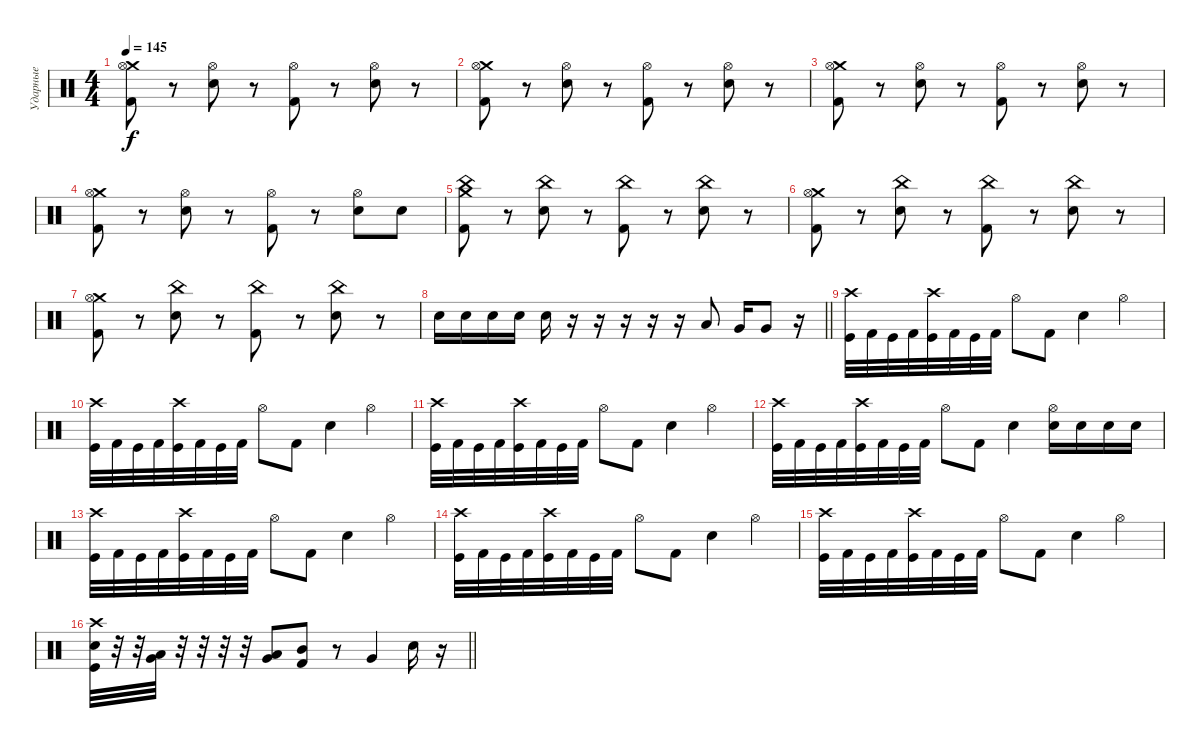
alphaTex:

\track ("Ударные" "Ударные") {instrument percussion}
\staff {score}
\articulation defaults
\ts (4 4)
\tempo 145
\clef neutral
\ks c
("Crash medium (hit)" "Hi-Hat (open)" "Kick (hit) 2").8{dy f} r.8 ("Hi-Hat (open)" "Electric Snare (hit)").8 r.8 ("Hi-Hat (open)" "Kick (hit) 2").8 r.8 ("Hi-Hat (open)" "Electric Snare (hit)").8 r.8 |
("Crash medium (hit)" "Hi-Hat (open)" "Kick (hit) 2").8 r.8 ("Hi-Hat (open)" "Electric Snare (hit)").8 r.8 ("Hi-Hat (open)" "Kick (hit) 2").8 r.8 ("Hi-Hat (open)" "Electric Snare (hit)").8 r.8 |
("Crash medium (hit)" "Hi-Hat (open)" "Kick (hit) 2").8 r.8 ("Hi-Hat (open)" "Electric Snare (hit)").8 r.8 ("Hi-Hat (open)" "Kick (hit) 2").8 r.8 ("Hi-Hat (open)" "Electric Snare (hit)").8 r.8 |
("Crash medium (hit)" "Hi-Hat (open)" "Kick (hit) 2").8 r.8 ("Hi-Hat (open)" "Electric Snare (hit)").8 r.8 ("Hi-Hat (open)" "Kick (hit) 2").8 r.8 ("Hi-Hat (open)" "Electric Snare (hit)").8 "Electric Snare (hit)".8 |
("Crash medium (hit)" "China (hit)" "Kick (hit) 2").8 r.8 ("China (hit)" "Electric Snare (hit)").8 r.8 ("China (hit)" "Kick (hit) 2").8 r.8 ("China (hit)" "Electric Snare (hit)").8 r.8 |
("Crash medium (hit)" "Hi-Hat (open)" "Kick (hit) 2").8 r.8 ("China (hit)" "Electric Snare (hit)").8 r.8 ("China (hit)" "Kick (hit) 2").8 r.8 ("China (hit)" "Electric Snare (hit)").8 r.8 |
("Crash medium (hit)" "Hi-Hat (open)" "Kick (hit) 2").8 r.8 ("China (hit)" "Electric Snare (hit)").8 r.8 ("China (hit)" "Kick (hit) 2").8 r.8 ("China (hit)" "Electric Snare (hit)").8 r.8 |
\barLineRight lightlight "Electric Snare (hit)".16 "Electric Snare (hit)".16 "Electric Snare (hit)".16 "Electric Snare (hit)".16 "Electric Snare (hit)".16
r.16 r.16 r.16 r.16 r.16 "Low Tom (hit)".8 "Very Low Tom (hit)".16 "Very Low Tom (hit)".8 r.16 |
\section ("" "")
("Crash high (hit)" "Kick (hit)").32 "Kick (hit) 2".32 "Kick (hit)".32 "Kick (hit) 2".32 ("Crash high (hit)" "Kick (hit)").32 "Kick (hit) 2".32 "Kick (hit)".32 "Kick (hit) 2".32 "Hi-Hat (open)".8 "Kick (hit) 2".8 "Snare (hit) 2".4 "Hi-Hat (open)".4 |
("Crash high (hit)" "Kick (hit)").32 "Kick (hit) 2".32 "Kick (hit)".32 "Kick (hit) 2".32 ("Crash high (hit)" "Kick (hit)").32 "Kick (hit) 2".32 "Kick (hit)".32 "Kick (hit) 2".32 "Hi-Hat (open)".8 "Kick (hit) 2".8 "Snare (hit) 2".4 "Hi-Hat (open)".4 |
("Crash high (hit)" "Kick (hit)").32 "Kick (hit) 2".32 "Kick (hit)".32 "Kick (hit) 2".32 ("Crash high (hit)" "Kick (hit)").32 "Kick (hit) 2".32 "Kick (hit)".32 "Kick (hit) 2".32 "Hi-Hat (open)".8 "Kick (hit) 2".8 "Snare (hit) 2".4 "Hi-Hat (open)".4 |
("Crash high (hit)" "Kick (hit)").32 "Kick (hit) 2".32 "Kick (hit)".32 "Kick (hit) 2".32 ("Crash high (hit)" "Kick (hit)").32 "Kick (hit) 2".32 "Kick (hit)".32 "Kick (hit) 2".32 "Hi-Hat (open)".8 "Kick (hit) 2".8 "Snare (hit) 2".4 ("Hi-Hat (open)" "Snare (hit) 2").16 "Snare (hit) 2".16 "Snare (hit) 2".16 "Snare (hit) 2".16 |
("Crash high (hit)" "Kick (hit)").32 "Kick (hit) 2".32 "Kick (hit)".32 "Kick (hit) 2".32 ("Crash high (hit)" "Kick (hit)").32 "Kick (hit) 2".32 "Kick (hit)".32 "Kick (hit) 2".32 "Hi-Hat (open)".8 "Kick (hit) 2".8 "Snare (hit) 2".4 "Hi-Hat (open)".4 |
("Crash high (hit)" "Kick (hit)").32 "Kick (hit) 2".32 "Kick (hit)".32 "Kick (hit) 2".32 ("Crash high (hit)" "Kick (hit)").32 "Kick (hit) 2".32 "Kick (hit)".32 "Kick (hit) 2".32 "Hi-Hat (open)".8 "Kick (hit) 2".8 "Snare (hit) 2".4 "Hi-Hat (open)".4 |
("Crash high (hit)" "Kick (hit)").32 "Kick (hit) 2".32 "Kick (hit)".32 "Kick (hit) 2".32 ("Crash high (hit)" "Kick (hit)").32 "Kick (hit) 2".32 "Kick (hit)".32 "Kick (hit) 2".32 "Hi-Hat (open)".8 "Kick (hit) 2".8 "Snare (hit) 2".4 "Hi-Hat (open)".4 |
\barLineRight lightlight
("Crash high (hit)" "Snare (hit) 2" "Kick (hit)").32 r.32 r.32 ("Low Tom (hit)" "Very Low Tom (hit)").32 r.32 r.32 r.32 r.32 ("Low Tom (hit)" "Very Low Tom (hit)").8 ("Mid Tom (hit)" "Kick (hit) 2").8 r.8 "Very Low Tom (hit)".4 "Snare (hit) 2".16 r.16
